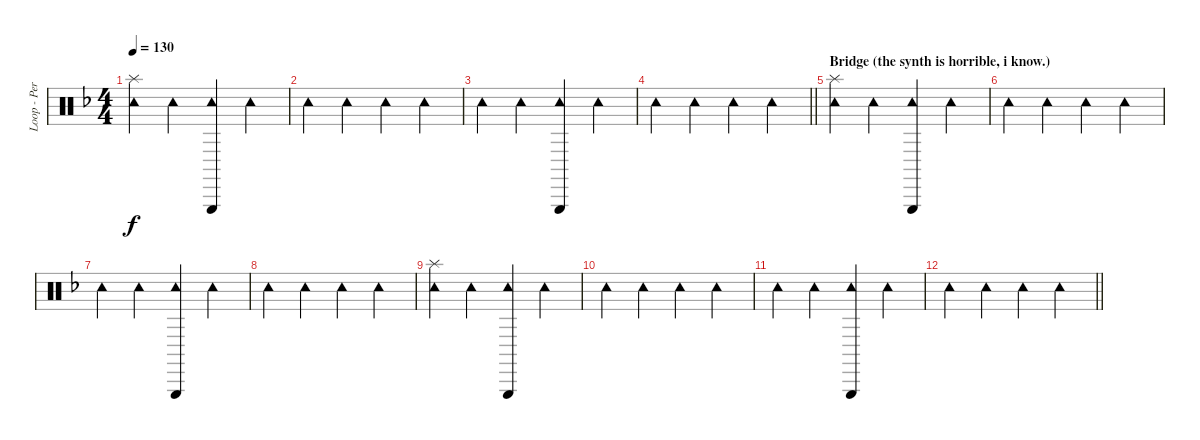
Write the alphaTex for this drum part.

\track ("Loop - Percussion FX" "Loop - Per") {instrument percussion}
\staff {score}
\articulation defaults
\ts (4 4)
\tempo 130
\clef neutral
\ks f
("Tambourine (hit)" "Splash (hit)").4{dy f} "Tambourine (hit)".4 ("Tambourine (hit)" "Triangle (hit)").4 "Tambourine (hit)".4 |
"Tambourine (hit)".4 "Tambourine (hit)".4 "Tambourine (hit)".4 "Tambourine (hit)".4 |
"Tambourine (hit)".4 "Tambourine (hit)".4 ("Tambourine (hit)" "Triangle (hit)").4 "Tambourine (hit)".4 |
\barLineRight lightlight "Tambourine (hit)".4 "Tambourine (hit)".4 "Tambourine (hit)".4 "Tambourine (hit)".4
|
\section ("" "Bridge (the synth is horrible, i know.)")
("Tambourine (hit)" "Splash (hit)").4 "Tambourine (hit)".4 ("Tambourine (hit)" "Triangle (hit)").4 "Tambourine (hit)".4 |
"Tambourine (hit)".4 "Tambourine (hit)".4 "Tambourine (hit)".4 "Tambourine (hit)".4 |
"Tambourine (hit)".4 "Tambourine (hit)".4 ("Tambourine (hit)" "Triangle (hit)").4 "Tambourine (hit)".4 |
"Tambourine (hit)".4 "Tambourine (hit)".4 "Tambourine (hit)".4 "Tambourine (hit)".4 |
("Tambourine (hit)" "Splash (hit)").4 "Tambourine (hit)".4 ("Tambourine (hit)" "Triangle (hit)").4 "Tambourine (hit)".4 |
"Tambourine (hit)".4 "Tambourine (hit)".4 "Tambourine (hit)".4 "Tambourine (hit)".4 |
"Tambourine (hit)".4 "Tambourine (hit)".4 ("Tambourine (hit)" "Triangle (hit)").4 "Tambourine (hit)".4 |
\barLineRight lightlight "Tambourine (hit)".4 "Tambourine (hit)".4 "Tambourine (hit)".4 "Tambourine (hit)".4
